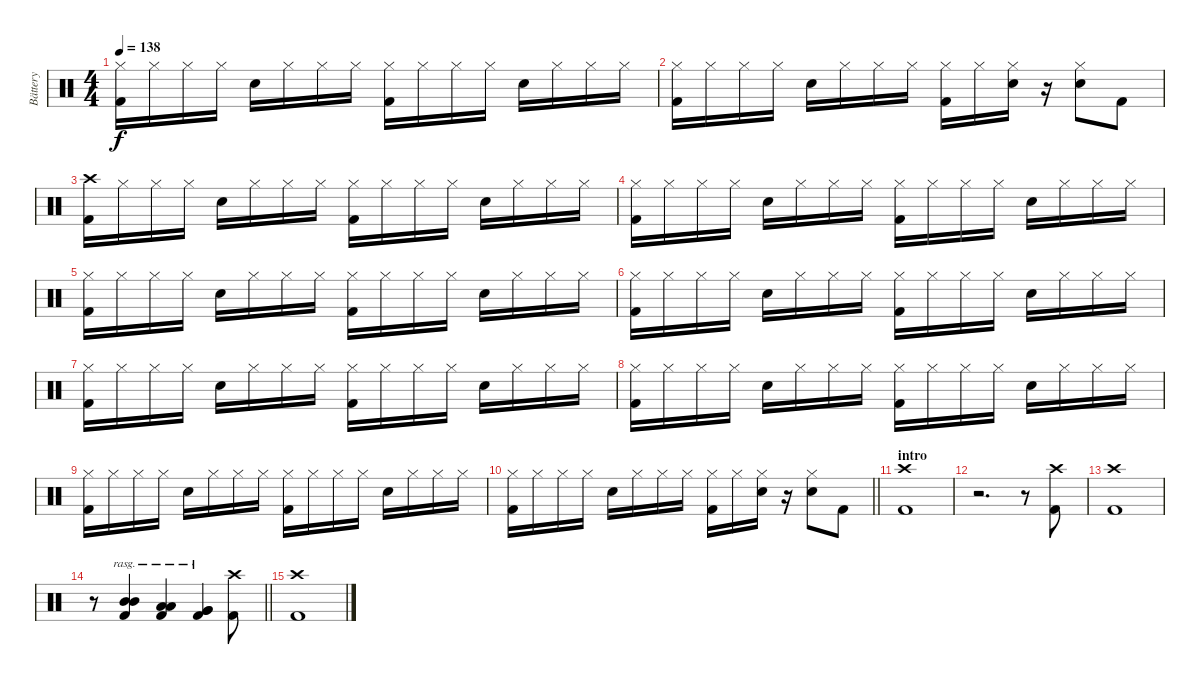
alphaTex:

\track ("Bättery" "Bättery") {instrument percussion}
\staff {score}
\articulation defaults
\ts (4 4)
\tempo 138
\clef neutral
\ks c
("Hi-Hat (closed)" "Kick (hit) 2").16{dy f} "Hi-Hat (closed)".16 "Hi-Hat (closed)".16 "Hi-Hat (closed)".16 "Electric Snare (hit)".16 "Hi-Hat (closed)".16 "Hi-Hat (closed)".16 "Hi-Hat (closed)".16 ("Hi-Hat (closed)" "Kick (hit) 2").16 "Hi-Hat (closed)".16 "Hi-Hat (closed)".16 "Hi-Hat (closed)".16 "Electric Snare (hit)".16 "Hi-Hat (closed)".16 "Hi-Hat (closed)".16 "Hi-Hat (closed)".16 |
("Hi-Hat (closed)" "Kick (hit) 2").16 "Hi-Hat (closed)".16 "Hi-Hat (closed)".16 "Hi-Hat (closed)".16 "Electric Snare (hit)".16 "Hi-Hat (closed)".16 "Hi-Hat (closed)".16 "Hi-Hat (closed)".16 ("Hi-Hat (closed)" "Kick (hit) 2").16 "Hi-Hat (closed)".16 ("Hi-Hat (closed)" "Electric Snare (hit)").16 r.16 ("Hi-Hat (closed)" "Electric Snare (hit)").8 "Kick (hit) 2".8 |
("Crash high (hit)" "Kick (hit) 2").16 "Hi-Hat (closed)".16 "Hi-Hat (closed)".16 "Hi-Hat (closed)".16 "Electric Snare (hit)".16 "Hi-Hat (closed)".16 "Hi-Hat (closed)".16 "Hi-Hat (closed)".16 ("Hi-Hat (closed)" "Kick (hit) 2").16 "Hi-Hat (closed)".16 "Hi-Hat (closed)".16 "Hi-Hat (closed)".16 "Electric Snare (hit)".16 "Hi-Hat (closed)".16 "Hi-Hat (closed)".16 "Hi-Hat (closed)".16 |
("Hi-Hat (closed)" "Kick (hit) 2").16 "Hi-Hat (closed)".16 "Hi-Hat (closed)".16 "Hi-Hat (closed)".16 "Electric Snare (hit)".16 "Hi-Hat (closed)".16 "Hi-Hat (closed)".16 "Hi-Hat (closed)".16 ("Hi-Hat (closed)" "Kick (hit) 2").16 "Hi-Hat (closed)".16 "Hi-Hat (closed)".16 "Hi-Hat (closed)".16 "Electric Snare (hit)".16 "Hi-Hat (closed)".16 "Hi-Hat (closed)".16 "Hi-Hat (closed)".16 |
("Hi-Hat (closed)" "Kick (hit) 2").16 "Hi-Hat (closed)".16 "Hi-Hat (closed)".16 "Hi-Hat (closed)".16 "Electric Snare (hit)".16 "Hi-Hat (closed)".16 "Hi-Hat (closed)".16 "Hi-Hat (closed)".16 ("Hi-Hat (closed)" "Kick (hit) 2").16 "Hi-Hat (closed)".16 "Hi-Hat (closed)".16 "Hi-Hat (closed)".16 "Electric Snare (hit)".16 "Hi-Hat (closed)".16 "Hi-Hat (closed)".16 "Hi-Hat (closed)".16 |
("Hi-Hat (closed)" "Kick (hit) 2").16 "Hi-Hat (closed)".16 "Hi-Hat (closed)".16 "Hi-Hat (closed)".16 "Electric Snare (hit)".16 "Hi-Hat (closed)".16 "Hi-Hat (closed)".16 "Hi-Hat (closed)".16 ("Hi-Hat (closed)" "Kick (hit) 2").16 "Hi-Hat (closed)".16 "Hi-Hat (closed)".16 "Hi-Hat (closed)".16 "Electric Snare (hit)".16 "Hi-Hat (closed)".16 "Hi-Hat (closed)".16 "Hi-Hat (closed)".16 |
("Hi-Hat (closed)" "Kick (hit) 2").16 "Hi-Hat (closed)".16 "Hi-Hat (closed)".16 "Hi-Hat (closed)".16 "Electric Snare (hit)".16 "Hi-Hat (closed)".16 "Hi-Hat (closed)".16 "Hi-Hat (closed)".16 ("Hi-Hat (closed)" "Kick (hit) 2").16 "Hi-Hat (closed)".16 "Hi-Hat (closed)".16 "Hi-Hat (closed)".16 "Electric Snare (hit)".16 "Hi-Hat (closed)".16 "Hi-Hat (closed)".16 "Hi-Hat (closed)".16 |
("Hi-Hat (closed)" "Kick (hit) 2").16 "Hi-Hat (closed)".16 "Hi-Hat (closed)".16 "Hi-Hat (closed)".16 "Electric Snare (hit)".16 "Hi-Hat (closed)".16 "Hi-Hat (closed)".16 "Hi-Hat (closed)".16 ("Hi-Hat (closed)" "Kick (hit) 2").16 "Hi-Hat (closed)".16 "Hi-Hat (closed)".16 "Hi-Hat (closed)".16 "Electric Snare (hit)".16 "Hi-Hat (closed)".16 "Hi-Hat (closed)".16 "Hi-Hat (closed)".16 |
("Hi-Hat (closed)" "Kick (hit) 2").16 "Hi-Hat (closed)".16 "Hi-Hat (closed)".16 "Hi-Hat (closed)".16 "Electric Snare (hit)".16 "Hi-Hat (closed)".16 "Hi-Hat (closed)".16 "Hi-Hat (closed)".16 ("Hi-Hat (closed)" "Kick (hit) 2").16 "Hi-Hat (closed)".16 "Hi-Hat (closed)".16 "Hi-Hat (closed)".16 "Electric Snare (hit)".16 "Hi-Hat (closed)".16 "Hi-Hat (closed)".16 "Hi-Hat (closed)".16 |
\barLineRight lightlight
("Hi-Hat (closed)" "Kick (hit) 2").16 "Hi-Hat (closed)".16 "Hi-Hat (closed)".16 "Hi-Hat (closed)".16 "Electric Snare (hit)".16 "Hi-Hat (closed)".16 "Hi-Hat (closed)".16 "Hi-Hat (closed)".16 ("Hi-Hat (closed)" "Kick (hit) 2").16 "Hi-Hat (closed)".16 ("Hi-Hat (closed)" "Electric Snare (hit)").16 r.16 ("Hi-Hat (closed)" "Electric Snare (hit)").8 "Kick (hit) 2".8 |
\section ("" "intro")
("Crash high (hit)" "Kick (hit) 2").1 |
r.2{d} r.8 ("Crash high (hit)" "Kick (hit) 2").8 |
("Crash high (hit)" "Kick (hit) 2").1 |
\barLineRight lightlight
r.8 ("Mid Tom (hit)" "Mid Tom (hit)" "Kick (hit) 2").4{bu 120 rasg ii} ("Low Tom (hit)" "Low Tom (hit)" "Kick (hit) 2").4{bu 120 rasg ii} ("Very Low Tom (hit)" "Very Low Tom (hit)" "Kick (hit) 2").4{bu 120 rasg ii} ("Crash high (hit)" "Kick (hit) 2").8 |
("Crash high (hit)" "Kick (hit) 2").1
